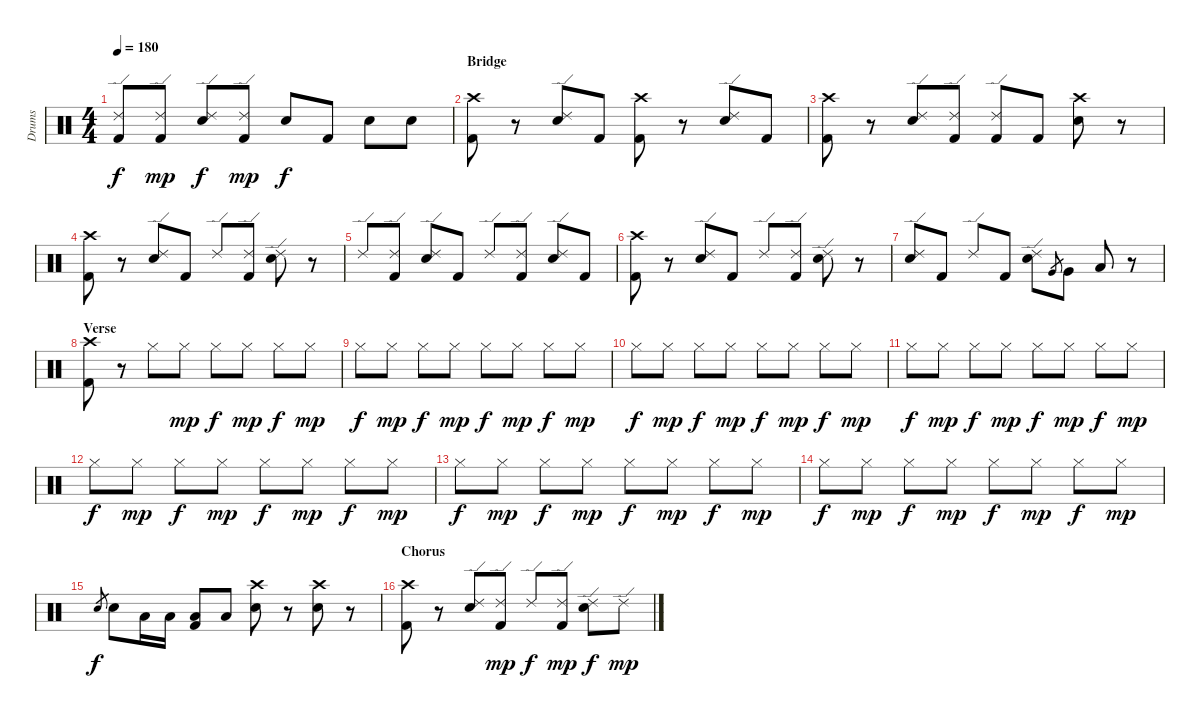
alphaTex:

\track ("Drums" "Drums") {instrument percussion}
\staff {score}
\articulation defaults
\ts (4 4)
\tempo 180
\clef neutral
\ks c
("Ride (edge) 2" "Kick (hit) 2").8{dy f} ("Ride (edge) 2" "Kick (hit) 2").8{dy mp} ("Ride (edge) 2" "Electric Snare (hit)").8{dy f} ("Ride (edge) 2" "Kick (hit) 2").8{dy mp} "Electric Snare (hit)".8{dy f} "Kick (hit) 2".8 "Electric Snare (hit)".8 "Electric Snare (hit)".8 |
\section ("" "Bridge")
("Crash high (hit)" "Kick (hit) 2").8 r.8 ("Ride (edge) 2" "Electric Snare (hit)").8 "Kick (hit) 2".8 ("Crash high (hit)" "Kick (hit) 2").8 r.8 ("Ride (edge) 2" "Electric Snare (hit)").8 "Kick (hit) 2".8 |
("Crash high (hit)" "Kick (hit) 2").8 r.8 ("Ride (edge) 2" "Electric Snare (hit)").8 ("Ride (edge) 2" "Kick (hit) 2").8 ("Ride (edge) 2" "Kick (hit) 2").8 "Kick (hit) 2".8 ("Crash high (hit)" "Electric Snare (hit)").8 r.8 |
("Crash high (hit)" "Kick (hit) 2").8 r.8 ("Ride (edge) 2" "Electric Snare (hit)").8 "Kick (hit) 2".8 "Ride (edge) 2".8 ("Ride (edge) 2" "Kick (hit) 2").8 ("Ride (edge) 2" "Electric Snare (hit)").8 r.8 |
"Ride (edge) 2".8 ("Ride (edge) 2" "Kick (hit) 2").8 ("Ride (edge) 2" "Electric Snare (hit)").8 "Kick (hit) 2".8 "Ride (edge) 2".8 ("Ride (edge) 2" "Kick (hit) 2").8 ("Ride (edge) 2" "Electric Snare (hit)").8 "Kick (hit) 2".8 |
("Crash high (hit)" "Kick (hit) 2").8 r.8 ("Ride (edge) 2" "Electric Snare (hit)").8 "Kick (hit) 2".8 "Ride (edge) 2".8 ("Ride (edge) 2" "Kick (hit) 2").8 ("Ride (edge) 2" "Electric Snare (hit)").8 r.8 |
("Ride (edge) 2" "Electric Snare (hit)").8 "Kick (hit) 2".8 "Ride (edge) 2".8 "Kick (hit) 2".8 ("Ride (edge) 2" "Electric Snare (hit)").8 "Very Low Tom (hit)".8{gr} "Very Low Tom (hit)".8 "Low Floor Tom (hit)".8 r.8 |
\section ("" "Verse")
("Crash high (hit)" "Kick (hit) 2").8 r.8 "Hi-Hat (closed)".8 "Hi-Hat (closed)".8{dy mp} "Hi-Hat (closed)".8{dy f} "Hi-Hat (closed)".8{dy mp} "Hi-Hat (closed)".8{dy f} "Hi-Hat (closed)".8{dy mp} |
"Hi-Hat (closed)".8{dy f} "Hi-Hat (closed)".8{dy mp} "Hi-Hat (closed)".8{dy f} "Hi-Hat (closed)".8{dy mp} "Hi-Hat (closed)".8{dy f} "Hi-Hat (closed)".8{dy mp} "Hi-Hat (closed)".8{dy f} "Hi-Hat (closed)".8{dy mp} |
"Hi-Hat (closed)".8{dy f} "Hi-Hat (closed)".8{dy mp} "Hi-Hat (closed)".8{dy f} "Hi-Hat (closed)".8{dy mp} "Hi-Hat (closed)".8{dy f} "Hi-Hat (closed)".8{dy mp} "Hi-Hat (closed)".8{dy f} "Hi-Hat (closed)".8{dy mp} |
"Hi-Hat (closed)".8{dy f} "Hi-Hat (closed)".8{dy mp} "Hi-Hat (closed)".8{dy f} "Hi-Hat (closed)".8{dy mp} "Hi-Hat (closed)".8{dy f} "Hi-Hat (closed)".8{dy mp} "Hi-Hat (closed)".8{dy f} "Hi-Hat (closed)".8{dy mp} |
"Hi-Hat (closed)".8{dy f} "Hi-Hat (closed)".8{dy mp} "Hi-Hat (closed)".8{dy f} "Hi-Hat (closed)".8{dy mp} "Hi-Hat (closed)".8{dy f} "Hi-Hat (closed)".8{dy mp} "Hi-Hat (closed)".8{dy f} "Hi-Hat (closed)".8{dy mp} |
"Hi-Hat (closed)".8{dy f} "Hi-Hat (closed)".8{dy mp} "Hi-Hat (closed)".8{dy f} "Hi-Hat (closed)".8{dy mp} "Hi-Hat (closed)".8{dy f} "Hi-Hat (closed)".8{dy mp} "Hi-Hat (closed)".8{dy f} "Hi-Hat (closed)".8{dy mp} |
"Hi-Hat (closed)".8{dy f} "Hi-Hat (closed)".8{dy mp} "Hi-Hat (closed)".8{dy f} "Hi-Hat (closed)".8{dy mp} "Hi-Hat (closed)".8{dy f} "Hi-Hat (closed)".8{dy mp} "Hi-Hat (closed)".8{dy f} "Hi-Hat (closed)".8{dy mp} |
"Electric Snare (hit)".8{gr dy f} "Electric Snare (hit)".8 "Low Floor Tom (hit)".16 "Low Floor Tom (hit)".16 ("Low Floor Tom (hit)" "Kick (hit) 2").8 "Low Floor Tom (hit)".8 ("Crash high (hit)" "Electric Snare (hit)").8 r.8 ("Crash high (hit)" "Electric Snare (hit)").8 r.8 |
\section ("" "Chorus")
("Crash high (hit)" "Kick (hit) 2").8 r.8 ("Ride (edge) 2" "Electric Snare (hit)").8 ("Ride (edge) 2" "Kick (hit) 2").8{dy mp} "Ride (edge) 2".8{dy f} ("Ride (edge) 2" "Kick (hit) 2").8{dy mp} ("Ride (edge) 2" "Electric Snare (hit)").8{dy f} "Ride (edge) 2".8{dy mp}
